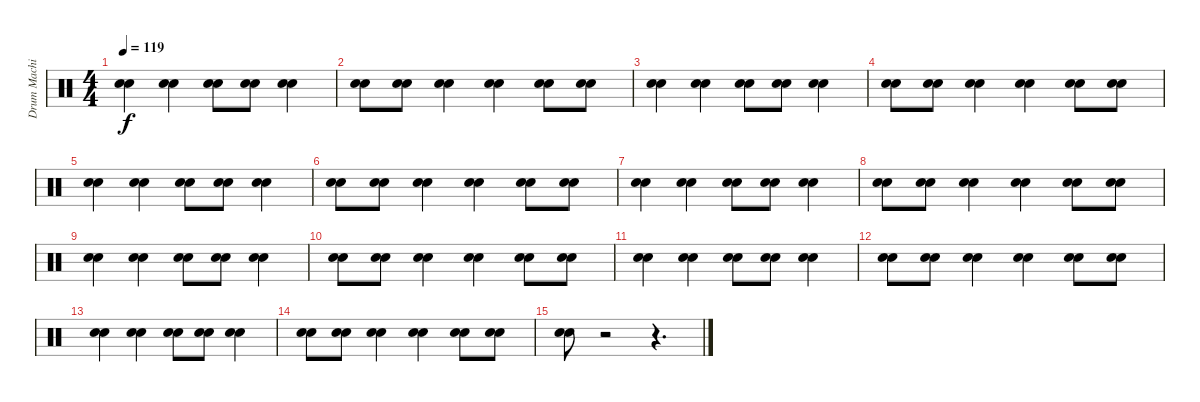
\track ("Drum Machine" "Drum Machi") {instrument percussion}
\staff {score}
\articulation defaults
\ts (4 4)
\tempo 119
\clef neutral
\ks c
("Hand Clap (hit)" "Hand Clap (hit)").4{dy f} ("Hand Clap (hit)" "Hand Clap (hit)").4 ("Hand Clap (hit)" "Hand Clap (hit)").8 ("Hand Clap (hit)" "Hand Clap (hit)").8 ("Hand Clap (hit)" "Hand Clap (hit)").4 |
("Hand Clap (hit)" "Hand Clap (hit)").8 ("Hand Clap (hit)" "Hand Clap (hit)").8 ("Hand Clap (hit)" "Hand Clap (hit)").4 ("Hand Clap (hit)" "Hand Clap (hit)").4 ("Hand Clap (hit)" "Hand Clap (hit)").8 ("Hand Clap (hit)" "Hand Clap (hit)").8 |
("Hand Clap (hit)" "Hand Clap (hit)").4 ("Hand Clap (hit)" "Hand Clap (hit)").4 ("Hand Clap (hit)" "Hand Clap (hit)").8 ("Hand Clap (hit)" "Hand Clap (hit)").8 ("Hand Clap (hit)" "Hand Clap (hit)").4 |
("Hand Clap (hit)" "Hand Clap (hit)").8 ("Hand Clap (hit)" "Hand Clap (hit)").8 ("Hand Clap (hit)" "Hand Clap (hit)").4 ("Hand Clap (hit)" "Hand Clap (hit)").4 ("Hand Clap (hit)" "Hand Clap (hit)").8 ("Hand Clap (hit)" "Hand Clap (hit)").8 |
("Hand Clap (hit)" "Hand Clap (hit)").4 ("Hand Clap (hit)" "Hand Clap (hit)").4 ("Hand Clap (hit)" "Hand Clap (hit)").8 ("Hand Clap (hit)" "Hand Clap (hit)").8 ("Hand Clap (hit)" "Hand Clap (hit)").4 |
("Hand Clap (hit)" "Hand Clap (hit)").8 ("Hand Clap (hit)" "Hand Clap (hit)").8 ("Hand Clap (hit)" "Hand Clap (hit)").4 ("Hand Clap (hit)" "Hand Clap (hit)").4 ("Hand Clap (hit)" "Hand Clap (hit)").8 ("Hand Clap (hit)" "Hand Clap (hit)").8 |
("Hand Clap (hit)" "Hand Clap (hit)").4 ("Hand Clap (hit)" "Hand Clap (hit)").4 ("Hand Clap (hit)" "Hand Clap (hit)").8 ("Hand Clap (hit)" "Hand Clap (hit)").8 ("Hand Clap (hit)" "Hand Clap (hit)").4 |
("Hand Clap (hit)" "Hand Clap (hit)").8 ("Hand Clap (hit)" "Hand Clap (hit)").8 ("Hand Clap (hit)" "Hand Clap (hit)").4 ("Hand Clap (hit)" "Hand Clap (hit)").4 ("Hand Clap (hit)" "Hand Clap (hit)").8 ("Hand Clap (hit)" "Hand Clap (hit)").8 |
("Hand Clap (hit)" "Hand Clap (hit)").4 ("Hand Clap (hit)" "Hand Clap (hit)").4 ("Hand Clap (hit)" "Hand Clap (hit)").8 ("Hand Clap (hit)" "Hand Clap (hit)").8 ("Hand Clap (hit)" "Hand Clap (hit)").4 |
("Hand Clap (hit)" "Hand Clap (hit)").8 ("Hand Clap (hit)" "Hand Clap (hit)").8 ("Hand Clap (hit)" "Hand Clap (hit)").4 ("Hand Clap (hit)" "Hand Clap (hit)").4 ("Hand Clap (hit)" "Hand Clap (hit)").8 ("Hand Clap (hit)" "Hand Clap (hit)").8 |
("Hand Clap (hit)" "Hand Clap (hit)").4 ("Hand Clap (hit)" "Hand Clap (hit)").4 ("Hand Clap (hit)" "Hand Clap (hit)").8 ("Hand Clap (hit)" "Hand Clap (hit)").8 ("Hand Clap (hit)" "Hand Clap (hit)").4 |
("Hand Clap (hit)" "Hand Clap (hit)").8 ("Hand Clap (hit)" "Hand Clap (hit)").8 ("Hand Clap (hit)" "Hand Clap (hit)").4 ("Hand Clap (hit)" "Hand Clap (hit)").4 ("Hand Clap (hit)" "Hand Clap (hit)").8 ("Hand Clap (hit)" "Hand Clap (hit)").8 |
("Hand Clap (hit)" "Hand Clap (hit)").4{volume 0} ("Hand Clap (hit)" "Hand Clap (hit)").4 ("Hand Clap (hit)" "Hand Clap (hit)").8 ("Hand Clap (hit)" "Hand Clap (hit)").8 ("Hand Clap (hit)" "Hand Clap (hit)").4 |
("Hand Clap (hit)" "Hand Clap (hit)").8 ("Hand Clap (hit)" "Hand Clap (hit)").8 ("Hand Clap (hit)" "Hand Clap (hit)").4 ("Hand Clap (hit)" "Hand Clap (hit)").4 ("Hand Clap (hit)" "Hand Clap (hit)").8 ("Hand Clap (hit)" "Hand Clap (hit)").8 |
("Hand Clap (hit)" "Hand Clap (hit)").8 r.2 r.4{d}
